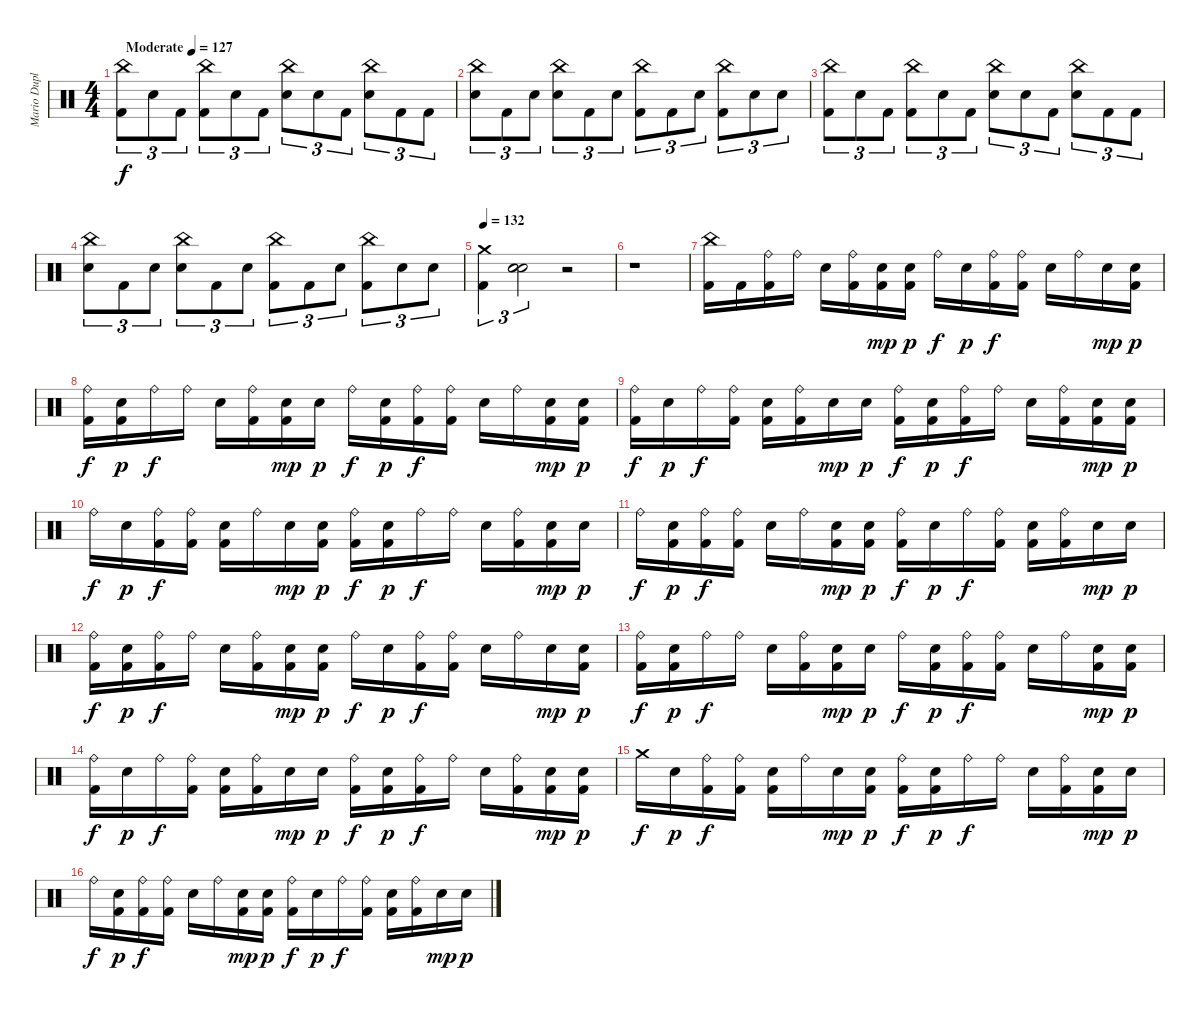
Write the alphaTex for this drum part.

\track ("Mario Duplantier" "Mario Dupl") {instrument percussion}
\staff {score}
\articulation defaults
\ts (4 4)
\tempo (127 "Moderate")
\clef neutral
\ks c
("China (hit)" "Kick (hit) 2").8{tu (3 2) dy f} "Electric Snare (hit)".8{tu (3 2)} "Kick (hit) 2".8{tu (3 2)} ("China (hit)" "Kick (hit) 2").8{tu (3 2)} "Electric Snare (hit)".8{tu (3 2)} "Kick (hit) 2".8{tu (3 2)} ("China (hit)" "Electric Snare (hit)").8{tu (3 2)} "Electric Snare (hit)".8{tu (3 2)} "Kick (hit) 2".8{tu (3 2)} ("China (hit)" "Electric Snare (hit)").8{tu (3 2)} "Kick (hit) 2".8{tu (3 2)} "Kick (hit) 2".8{tu (3 2)} |
("China (hit)" "Electric Snare (hit)").8{tu (3 2)} "Kick (hit) 2".8{tu (3 2)} "Electric Snare (hit)".8{tu (3 2)} ("China (hit)" "Electric Snare (hit)").8{tu (3 2)} "Kick (hit) 2".8{tu (3 2)} "Electric Snare (hit)".8{tu (3 2)} ("China (hit)" "Kick (hit) 2").8{tu (3 2)} "Kick (hit) 2".8{tu (3 2)} "Electric Snare (hit)".8{tu (3 2)} ("China (hit)" "Kick (hit) 2").8{tu (3 2)} "Electric Snare (hit)".8{tu (3 2)} "Electric Snare (hit)".8{tu (3 2)} |
("China (hit)" "Kick (hit) 2").8{tu (3 2)} "Electric Snare (hit)".8{tu (3 2)} "Kick (hit) 2".8{tu (3 2)} ("China (hit)" "Kick (hit) 2").8{tu (3 2)} "Electric Snare (hit)".8{tu (3 2)} "Kick (hit) 2".8{tu (3 2)} ("China (hit)" "Electric Snare (hit)").8{tu (3 2)} "Electric Snare (hit)".8{tu (3 2)} "Kick (hit) 2".8{tu (3 2)} ("China (hit)" "Electric Snare (hit)").8{tu (3 2)} "Kick (hit) 2".8{tu (3 2)} "Kick (hit) 2".8{tu (3 2)} |
("China (hit)" "Electric Snare (hit)").8{tu (3 2)} "Kick (hit) 2".8{tu (3 2)} "Electric Snare (hit)".8{tu (3 2)} ("China (hit)" "Electric Snare (hit)").8{tu (3 2)} "Kick (hit) 2".8{tu (3 2)} "Electric Snare (hit)".8{tu (3 2)} ("China (hit)" "Kick (hit) 2").8{tu (3 2)} "Kick (hit) 2".8{tu (3 2)} "Electric Snare (hit)".8{tu (3 2)} ("China (hit)" "Kick (hit) 2").8{tu (3 2)} "Electric Snare (hit)".8{tu (3 2)} "Electric Snare (hit)".8{tu (3 2)} |
\tempo 132
("Crash medium (hit)" "Kick (hit) 2").4{tu (3 2)} ("Snare (hit)" "Snare (hit)" "Snare (hit)").2{tu (3 2) volume 0} r.2 |
r.1 |
("China (hit)" "Kick (hit) 2").16{volume 13} "Kick (hit) 2".16 ("Ride (bell)" "Kick (hit) 2").16 "Ride (bell)".16 "Electric Snare (hit)".16 ("Ride (bell)" "Kick (hit) 2").16 ("Electric Snare (hit)" "Kick (hit) 2").16{dy mp} ("Electric Snare (hit)" "Kick (hit) 2").16{dy p} "Ride (bell)".16{dy f} "Electric Snare (hit)".16{dy p} ("Ride (bell)" "Kick (hit) 2").16{dy f} ("Ride (bell)" "Kick (hit) 2").16 "Electric Snare (hit)".16 "Ride (bell)".16 "Electric Snare (hit)".16{dy mp} ("Electric Snare (hit)" "Kick (hit) 2").16{dy p} |
("Ride (bell)" "Kick (hit) 2").16{dy f} ("Electric Snare (hit)" "Kick (hit) 2").16{dy p} "Ride (bell)".16{dy f} "Ride (bell)".16 "Electric Snare (hit)".16 ("Ride (bell)" "Kick (hit) 2").16 ("Electric Snare (hit)" "Kick (hit) 2").16{dy mp} "Electric Snare (hit)".16{dy p} "Ride (bell)".16{dy f} ("Electric Snare (hit)" "Kick (hit) 2").16{dy p} ("Ride (bell)" "Kick (hit) 2").16{dy f} ("Ride (bell)" "Kick (hit) 2").16 "Electric Snare (hit)".16 "Ride (bell)".16 ("Electric Snare (hit)" "Kick (hit) 2").16{dy mp} ("Electric Snare (hit)" "Kick (hit) 2").16{dy p} |
("Ride (bell)" "Kick (hit) 2").16{dy f} "Electric Snare (hit)".16{dy p} "Ride (bell)".16{dy f} ("Ride (bell)" "Kick (hit) 2").16 ("Electric Snare (hit)" "Kick (hit) 2").16 ("Ride (bell)" "Kick (hit) 2").16 "Electric Snare (hit)".16{dy mp} "Electric Snare (hit)".16{dy p} ("Ride (bell)" "Kick (hit) 2").16{dy f} ("Electric Snare (hit)" "Kick (hit) 2").16{dy p} ("Ride (bell)" "Kick (hit) 2").16{dy f} "Ride (bell)".16 "Electric Snare (hit)".16 ("Ride (bell)" "Kick (hit) 2").16 ("Electric Snare (hit)" "Kick (hit) 2").16{dy mp} ("Electric Snare (hit)" "Kick (hit) 2").16{dy p} |
"Ride (bell)".16{dy f} "Electric Snare (hit)".16{dy p} ("Ride (bell)" "Kick (hit) 2").16{dy f} ("Ride (bell)" "Kick (hit) 2").16 ("Electric Snare (hit)" "Kick (hit) 2").16 "Ride (bell)".16 "Electric Snare (hit)".16{dy mp} ("Electric Snare (hit)" "Kick (hit) 2").16{dy p} ("Ride (bell)" "Kick (hit) 2").16{dy f} ("Electric Snare (hit)" "Kick (hit) 2").16{dy p} "Ride (bell)".16{dy f} "Ride (bell)".16 "Electric Snare (hit)".16 ("Ride (bell)" "Kick (hit) 2").16 ("Electric Snare (hit)" "Kick (hit) 2").16{dy mp} "Electric Snare (hit)".16{dy p} |
"Ride (bell)".16{dy f} ("Electric Snare (hit)" "Kick (hit) 2").16{dy p} ("Ride (bell)" "Kick (hit) 2").16{dy f} ("Ride (bell)" "Kick (hit) 2").16 "Electric Snare (hit)".16 "Ride (bell)".16 ("Electric Snare (hit)" "Kick (hit) 2").16{dy mp} ("Electric Snare (hit)" "Kick (hit) 2").16{dy p} ("Ride (bell)" "Kick (hit) 2").16{dy f} "Electric Snare (hit)".16{dy p} "Ride (bell)".16{dy f} ("Ride (bell)" "Kick (hit) 2").16 ("Electric Snare (hit)" "Kick (hit) 2").16 ("Ride (bell)" "Kick (hit) 2").16 "Electric Snare (hit)".16{dy mp} "Electric Snare (hit)".16{dy p} |
("Ride (bell)" "Kick (hit) 2").16{dy f} ("Electric Snare (hit)" "Kick (hit) 2").16{dy p} ("Ride (bell)" "Kick (hit) 2").16{dy f} "Ride (bell)".16 "Electric Snare (hit)".16 ("Ride (bell)" "Kick (hit) 2").16 ("Electric Snare (hit)" "Kick (hit) 2").16{dy mp} ("Electric Snare (hit)" "Kick (hit) 2").16{dy p} "Ride (bell)".16{dy f} "Electric Snare (hit)".16{dy p} ("Ride (bell)" "Kick (hit) 2").16{dy f} ("Ride (bell)" "Kick (hit) 2").16 "Electric Snare (hit)".16 "Ride (bell)".16 "Electric Snare (hit)".16{dy mp} ("Electric Snare (hit)" "Kick (hit) 2").16{dy p} |
("Ride (bell)" "Kick (hit) 2").16{dy f} ("Electric Snare (hit)" "Kick (hit) 2").16{dy p} "Ride (bell)".16{dy f} "Ride (bell)".16 "Electric Snare (hit)".16 ("Ride (bell)" "Kick (hit) 2").16 ("Electric Snare (hit)" "Kick (hit) 2").16{dy mp} "Electric Snare (hit)".16{dy p} "Ride (bell)".16{dy f} ("Electric Snare (hit)" "Kick (hit) 2").16{dy p} ("Ride (bell)" "Kick (hit) 2").16{dy f} ("Ride (bell)" "Kick (hit) 2").16 "Electric Snare (hit)".16 "Ride (bell)".16 ("Electric Snare (hit)" "Kick (hit) 2").16{dy mp} ("Electric Snare (hit)" "Kick (hit) 2").16{dy p} |
("Ride (bell)" "Kick (hit) 2").16{dy f} "Electric Snare (hit)".16{dy p} "Ride (bell)".16{dy f} ("Ride (bell)" "Kick (hit) 2").16 ("Electric Snare (hit)" "Kick (hit) 2").16 ("Ride (bell)" "Kick (hit) 2").16 "Electric Snare (hit)".16{dy mp} "Electric Snare (hit)".16{dy p} ("Ride (bell)" "Kick (hit) 2").16{dy f} ("Electric Snare (hit)" "Kick (hit) 2").16{dy p} ("Ride (bell)" "Kick (hit) 2").16{dy f} "Ride (bell)".16 "Electric Snare (hit)".16 ("Ride (bell)" "Kick (hit) 2").16 ("Electric Snare (hit)" "Kick (hit) 2").16{dy mp} ("Electric Snare (hit)" "Kick (hit) 2").16{dy p} |
"Crash medium (hit)".16{dy f} "Electric Snare (hit)".16{dy p} ("Ride (bell)" "Kick (hit) 2").16{dy f} ("Ride (bell)" "Kick (hit) 2").16 ("Electric Snare (hit)" "Kick (hit) 2").16 "Ride (bell)".16 "Electric Snare (hit)".16{dy mp} ("Electric Snare (hit)" "Kick (hit) 2").16{dy p} ("Ride (bell)" "Kick (hit) 2").16{dy f} ("Electric Snare (hit)" "Kick (hit) 2").16{dy p} "Ride (bell)".16{dy f} "Ride (bell)".16 "Electric Snare (hit)".16 ("Ride (bell)" "Kick (hit) 2").16 ("Electric Snare (hit)" "Kick (hit) 2").16{dy mp} "Electric Snare (hit)".16{dy p} |
"Ride (bell)".16{dy f} ("Electric Snare (hit)" "Kick (hit) 2").16{dy p} ("Ride (bell)" "Kick (hit) 2").16{dy f} ("Ride (bell)" "Kick (hit) 2").16 "Electric Snare (hit)".16 "Ride (bell)".16 ("Electric Snare (hit)" "Kick (hit) 2").16{dy mp} ("Electric Snare (hit)" "Kick (hit) 2").16{dy p} ("Ride (bell)" "Kick (hit) 2").16{dy f} "Electric Snare (hit)".16{dy p} "Ride (bell)".16{dy f} ("Ride (bell)" "Kick (hit) 2").16 ("Electric Snare (hit)" "Kick (hit) 2").16 ("Ride (bell)" "Kick (hit) 2").16 "Electric Snare (hit)".16{dy mp} "Electric Snare (hit)".16{dy p}
